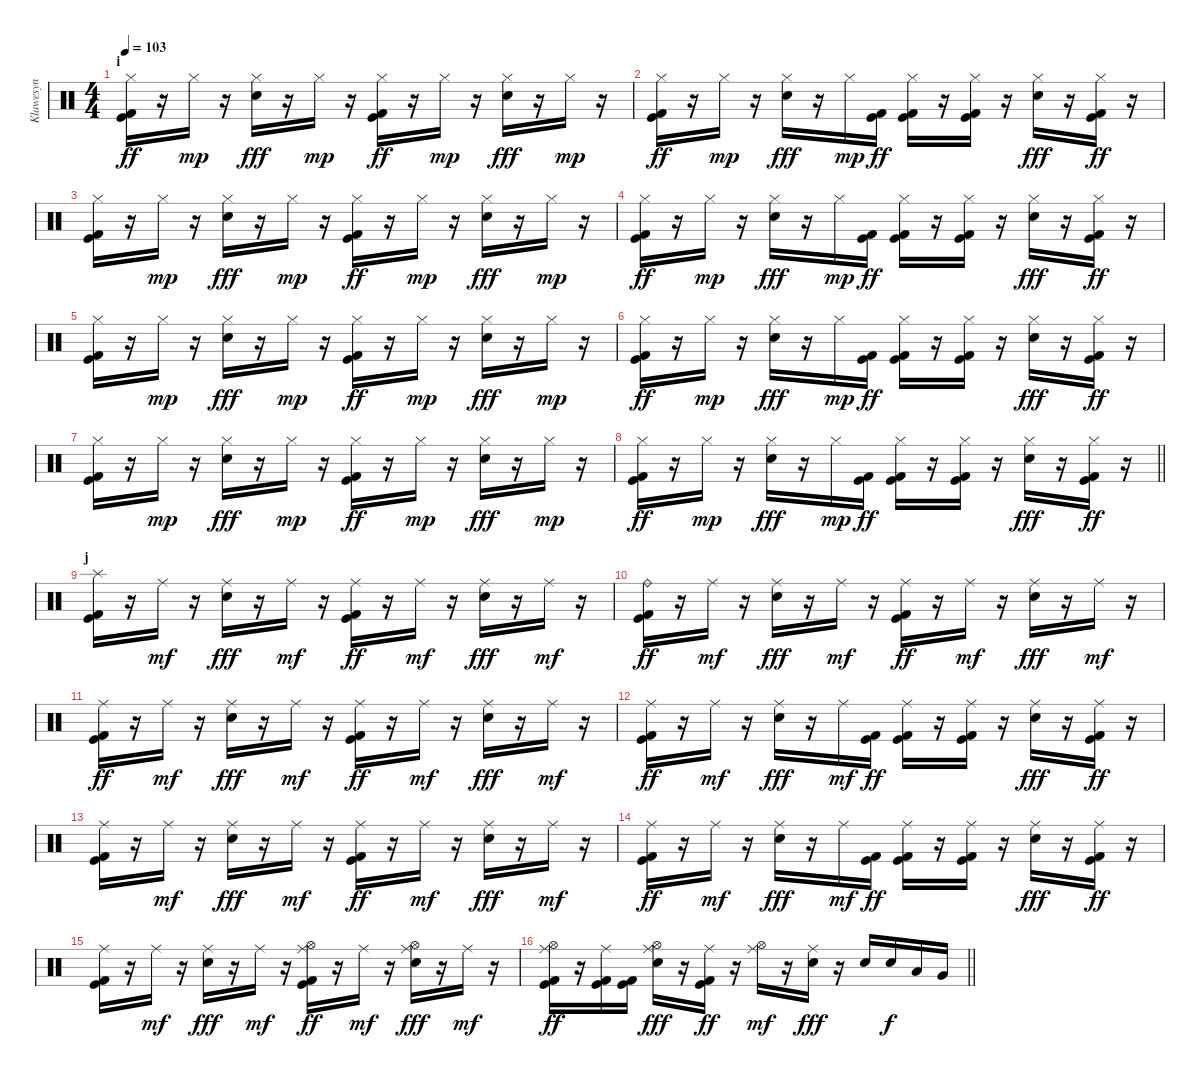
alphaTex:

\track ("Klawesyn" "Klawesyn") {instrument percussion}
\staff {score}
\articulation defaults
\ts (4 4)
\section ("" "i")
\tempo 103
\clef neutral
\ks c
("Hi-Hat (closed)" "Kick (hit)" "Kick (hit) 2").16{dy ff} r.16 "Hi-Hat (closed)".16{dy mp} r.16 ("Hi-Hat (closed)" "Electric Snare (hit)").16{dy fff} r.16 "Hi-Hat (closed)".16{dy mp} r.16 ("Hi-Hat (closed)" "Kick (hit)" "Kick (hit) 2").16{dy ff} r.16 "Hi-Hat (closed)".16{dy mp} r.16 ("Hi-Hat (closed)" "Electric Snare (hit)").16{dy fff} r.16 "Hi-Hat (closed)".16{dy mp} r.16 |
("Hi-Hat (closed)" "Kick (hit)" "Kick (hit) 2").16{dy ff} r.16 "Hi-Hat (closed)".16{dy mp} r.16 ("Hi-Hat (closed)" "Electric Snare (hit)").16{dy fff} r.16 "Hi-Hat (closed)".16{dy mp} ("Kick (hit)" "Kick (hit) 2").16{dy ff} ("Hi-Hat (closed)" "Kick (hit)" "Kick (hit) 2").16 r.16 ("Hi-Hat (closed)" "Kick (hit)" "Kick (hit) 2").16 r.16 ("Hi-Hat (closed)" "Electric Snare (hit)").16{dy fff} r.16 ("Hi-Hat (closed)" "Kick (hit)" "Kick (hit) 2").16{dy ff} r.16 |
("Hi-Hat (closed)" "Kick (hit)" "Kick (hit) 2").16 r.16 "Hi-Hat (closed)".16{dy mp} r.16 ("Hi-Hat (closed)" "Electric Snare (hit)").16{dy fff} r.16 "Hi-Hat (closed)".16{dy mp} r.16 ("Hi-Hat (closed)" "Kick (hit)" "Kick (hit) 2").16{dy ff} r.16 "Hi-Hat (closed)".16{dy mp} r.16 ("Hi-Hat (closed)" "Electric Snare (hit)").16{dy fff} r.16 "Hi-Hat (closed)".16{dy mp} r.16 |
("Hi-Hat (closed)" "Kick (hit)" "Kick (hit) 2").16{dy ff} r.16 "Hi-Hat (closed)".16{dy mp} r.16 ("Hi-Hat (closed)" "Electric Snare (hit)").16{dy fff} r.16 "Hi-Hat (closed)".16{dy mp} ("Kick (hit)" "Kick (hit) 2").16{dy ff} ("Hi-Hat (closed)" "Kick (hit)" "Kick (hit) 2").16 r.16 ("Hi-Hat (closed)" "Kick (hit)" "Kick (hit) 2").16 r.16 ("Hi-Hat (closed)" "Electric Snare (hit)").16{dy fff} r.16 ("Hi-Hat (closed)" "Kick (hit)" "Kick (hit) 2").16{dy ff} r.16 |
("Hi-Hat (closed)" "Kick (hit)" "Kick (hit) 2").16 r.16 "Hi-Hat (closed)".16{dy mp} r.16 ("Hi-Hat (closed)" "Electric Snare (hit)").16{dy fff} r.16 "Hi-Hat (closed)".16{dy mp} r.16 ("Hi-Hat (closed)" "Kick (hit)" "Kick (hit) 2").16{dy ff} r.16 "Hi-Hat (closed)".16{dy mp} r.16 ("Hi-Hat (closed)" "Electric Snare (hit)").16{dy fff} r.16 "Hi-Hat (closed)".16{dy mp} r.16 |
("Hi-Hat (closed)" "Kick (hit)" "Kick (hit) 2").16{dy ff} r.16 "Hi-Hat (closed)".16{dy mp} r.16 ("Hi-Hat (closed)" "Electric Snare (hit)").16{dy fff} r.16 "Hi-Hat (closed)".16{dy mp} ("Kick (hit)" "Kick (hit) 2").16{dy ff} ("Hi-Hat (closed)" "Kick (hit)" "Kick (hit) 2").16 r.16 ("Hi-Hat (closed)" "Kick (hit)" "Kick (hit) 2").16 r.16 ("Hi-Hat (closed)" "Electric Snare (hit)").16{dy fff} r.16 ("Hi-Hat (closed)" "Kick (hit)" "Kick (hit) 2").16{dy ff} r.16 |
("Hi-Hat (closed)" "Kick (hit)" "Kick (hit) 2").16 r.16 "Hi-Hat (closed)".16{dy mp} r.16 ("Hi-Hat (closed)" "Electric Snare (hit)").16{dy fff} r.16 "Hi-Hat (closed)".16{dy mp} r.16 ("Hi-Hat (closed)" "Kick (hit)" "Kick (hit) 2").16{dy ff} r.16 "Hi-Hat (closed)".16{dy mp} r.16 ("Hi-Hat (closed)" "Electric Snare (hit)").16{dy fff} r.16 "Hi-Hat (closed)".16{dy mp} r.16 |
\barLineRight lightlight
("Hi-Hat (closed)" "Kick (hit)" "Kick (hit) 2").16{dy ff} r.16 "Hi-Hat (closed)".16{dy mp} r.16 ("Hi-Hat (closed)" "Electric Snare (hit)").16{dy fff} r.16 "Hi-Hat (closed)".16{dy mp} ("Kick (hit)" "Kick (hit) 2").16{dy ff} ("Hi-Hat (closed)" "Kick (hit)" "Kick (hit) 2").16 r.16 ("Hi-Hat (closed)" "Kick (hit)" "Kick (hit) 2").16 r.16 ("Hi-Hat (closed)" "Electric Snare (hit)").16{dy fff} r.16 ("Hi-Hat (closed)" "Kick (hit)" "Kick (hit) 2").16{dy ff} r.16 |
\section ("" "j")
("Splash (hit)" "Kick (hit)" "Kick (hit) 2").16 r.16 "Ride (middle)".16{dy mf} r.16 ("Ride (middle)" "Electric Snare (hit)").16{dy fff} r.16 "Ride (middle)".16{dy mf} r.16 ("Ride (middle)" "Kick (hit)" "Kick (hit) 2").16{dy ff} r.16 "Ride (middle)".16{dy mf} r.16 ("Ride (middle)" "Electric Snare (hit)").16{dy fff} r.16 "Ride (middle)".16{dy mf} r.16 |
("Ride (bell)" "Kick (hit)" "Kick (hit) 2").16{dy ff} r.16 "Ride (middle)".16{dy mf} r.16 ("Ride (middle)" "Electric Snare (hit)").16{dy fff} r.16 "Ride (middle)".16{dy mf} r.16 ("Ride (middle)" "Kick (hit)" "Kick (hit) 2").16{dy ff} r.16 "Ride (middle)".16{dy mf} r.16 ("Ride (middle)" "Electric Snare (hit)").16{dy fff} r.16 "Ride (middle)".16{dy mf} r.16 |
("Ride (middle)" "Kick (hit)" "Kick (hit) 2").16{dy ff} r.16 "Ride (middle)".16{dy mf} r.16 ("Ride (middle)" "Electric Snare (hit)").16{dy fff} r.16 "Ride (middle)".16{dy mf} r.16 ("Ride (middle)" "Kick (hit)" "Kick (hit) 2").16{dy ff} r.16 "Ride (middle)".16{dy mf} r.16 ("Ride (middle)" "Electric Snare (hit)").16{dy fff} r.16 "Ride (middle)".16{dy mf} r.16 |
("Ride (middle)" "Kick (hit)" "Kick (hit) 2").16{dy ff} r.16 "Ride (middle)".16{dy mf} r.16 ("Ride (middle)" "Electric Snare (hit)").16{dy fff} r.16 "Ride (middle)".16{dy mf} ("Kick (hit)" "Kick (hit) 2").16{dy ff} ("Ride (middle)" "Kick (hit)" "Kick (hit) 2").16 r.16 ("Ride (middle)" "Kick (hit)" "Kick (hit) 2").16 r.16 ("Ride (middle)" "Electric Snare (hit)").16{dy fff} r.16 ("Ride (middle)" "Kick (hit)" "Kick (hit) 2").16{dy ff} r.16 |
("Ride (middle)" "Kick (hit)" "Kick (hit) 2").16 r.16 "Ride (middle)".16{dy mf} r.16 ("Ride (middle)" "Electric Snare (hit)").16{dy fff} r.16 "Ride (middle)".16{dy mf} r.16 ("Ride (middle)" "Kick (hit)" "Kick (hit) 2").16{dy ff} r.16 "Ride (middle)".16{dy mf} r.16 ("Ride (middle)" "Electric Snare (hit)").16{dy fff} r.16 "Ride (middle)".16{dy mf} r.16 |
("Ride (middle)" "Kick (hit)" "Kick (hit) 2").16{dy ff} r.16 "Ride (middle)".16{dy mf} r.16 ("Ride (middle)" "Electric Snare (hit)").16{dy fff} r.16 "Ride (middle)".16{dy mf} ("Kick (hit)" "Kick (hit) 2").16{dy ff} ("Ride (middle)" "Kick (hit)" "Kick (hit) 2").16 r.16 ("Ride (middle)" "Kick (hit)" "Kick (hit) 2").16 r.16 ("Ride (middle)" "Electric Snare (hit)").16{dy fff} r.16 ("Ride (middle)" "Kick (hit)" "Kick (hit) 2").16{dy ff} r.16 |
("Ride (middle)" "Kick (hit)" "Kick (hit) 2").16 r.16 "Ride (middle)".16{dy mf} r.16 ("Ride (middle)" "Electric Snare (hit)").16{dy fff} r.16 "Ride (middle)".16{dy mf} r.16 ("Ride (middle)" "Hi-Hat (open)" "Kick (hit)" "Kick (hit) 2").16{dy ff} r.16 "Ride (middle)".16{dy mf} r.16 ("Ride (middle)" "Hi-Hat (open)" "Electric Snare (hit)").16{dy fff} r.16 "Ride (middle)".16{dy mf} r.16 |
\barLineRight lightlight
("Ride (middle)" "Hi-Hat (open)" "Kick (hit)" "Kick (hit) 2").16{dy ff} r.16 ("Ride (middle)" "Kick (hit)" "Kick (hit) 2").16 ("Kick (hit)" "Kick (hit) 2").16 ("Ride (middle)" "Hi-Hat (open)" "Electric Snare (hit)").16{dy fff} r.16 ("Ride (middle)" "Kick (hit)" "Kick (hit) 2").16{dy ff} r.16 ("Ride (middle)" "Hi-Hat (open)").16{dy mf} r.16 ("Ride (middle)" "Electric Snare (hit)").16{dy fff} r.16 "Electric Snare (hit)".16 "Electric Snare (hit)".16{dy f} "Low Tom (hit)".16 "Very Low Tom (hit)".16
